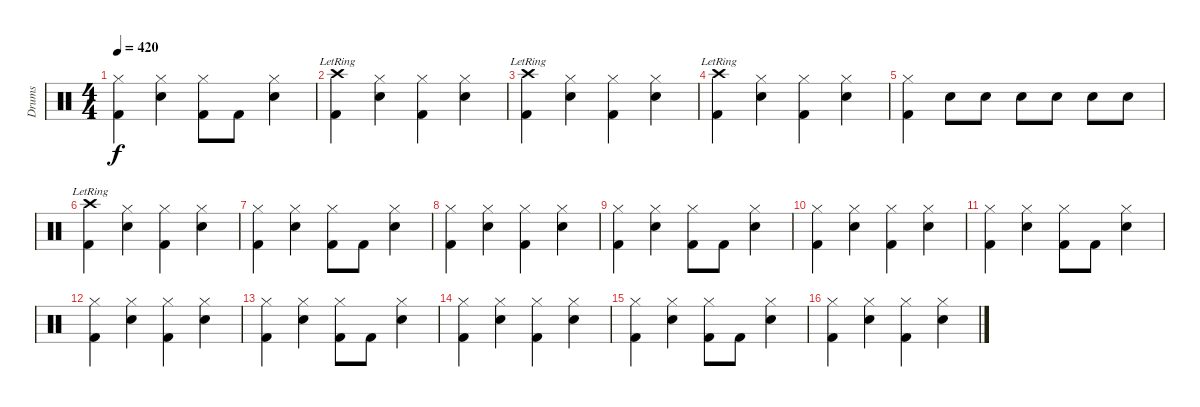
\track ("Drums" "Drums") {instrument percussion}
\staff {score}
\articulation defaults
\ts (4 4)
\tempo 420
\clef neutral
\ks c
("Hi-Hat (closed)" "Kick (hit) 2").4{dy f} ("Hi-Hat (closed)" "Snare (hit) 2").4 ("Hi-Hat (closed)" "Kick (hit) 2").8 "Kick (hit) 2".8 ("Hi-Hat (closed)" "Snare (hit) 2").4 |
("Crash high (hit)"{lr} "Kick (hit) 2").4 ("Hi-Hat (closed)" "Snare (hit) 2").4 ("Hi-Hat (closed)" "Kick (hit) 2").4 ("Hi-Hat (closed)" "Snare (hit) 2").4 |
("Crash high (hit)"{lr} "Kick (hit) 2").4 ("Hi-Hat (closed)" "Snare (hit) 2").4 ("Hi-Hat (closed)" "Kick (hit) 2").4 ("Hi-Hat (closed)" "Snare (hit) 2").4 |
("Crash high (hit)"{lr} "Kick (hit) 2").4 ("Hi-Hat (closed)" "Snare (hit) 2").4 ("Hi-Hat (closed)" "Kick (hit) 2").4 ("Hi-Hat (closed)" "Snare (hit) 2").4 |
("Hi-Hat (closed)" "Kick (hit) 2").4 "Snare (hit) 2".8 "Snare (hit) 2".8 "Snare (hit) 2".8 "Snare (hit) 2".8 "Snare (hit) 2".8 "Snare (hit) 2".8 |
("Crash high (hit)"{lr} "Kick (hit) 2").4 ("Hi-Hat (closed)" "Snare (hit) 2").4 ("Hi-Hat (closed)" "Kick (hit) 2").4 ("Hi-Hat (closed)" "Snare (hit) 2").4 |
("Hi-Hat (closed)" "Kick (hit) 2").4 ("Hi-Hat (closed)" "Snare (hit) 2").4 ("Hi-Hat (closed)" "Kick (hit) 2").8 "Kick (hit) 2".8 ("Hi-Hat (closed)" "Snare (hit) 2").4 |
("Hi-Hat (closed)" "Kick (hit) 2").4 ("Hi-Hat (closed)" "Snare (hit) 2").4 ("Hi-Hat (closed)" "Kick (hit) 2").4 ("Hi-Hat (closed)" "Snare (hit) 2").4 |
("Hi-Hat (closed)" "Kick (hit) 2").4 ("Hi-Hat (closed)" "Snare (hit) 2").4 ("Hi-Hat (closed)" "Kick (hit) 2").8 "Kick (hit) 2".8 ("Hi-Hat (closed)" "Snare (hit) 2").4 |
("Hi-Hat (closed)" "Kick (hit) 2").4 ("Hi-Hat (closed)" "Snare (hit) 2").4 ("Hi-Hat (closed)" "Kick (hit) 2").4 ("Hi-Hat (closed)" "Snare (hit) 2").4 |
("Hi-Hat (closed)" "Kick (hit) 2").4 ("Hi-Hat (closed)" "Snare (hit) 2").4 ("Hi-Hat (closed)" "Kick (hit) 2").8 "Kick (hit) 2".8 ("Hi-Hat (closed)" "Snare (hit) 2").4 |
("Hi-Hat (closed)" "Kick (hit) 2").4 ("Hi-Hat (closed)" "Snare (hit) 2").4 ("Hi-Hat (closed)" "Kick (hit) 2").4 ("Hi-Hat (closed)" "Snare (hit) 2").4 |
("Hi-Hat (closed)" "Kick (hit) 2").4 ("Hi-Hat (closed)" "Snare (hit) 2").4 ("Hi-Hat (closed)" "Kick (hit) 2").8 "Kick (hit) 2".8 ("Hi-Hat (closed)" "Snare (hit) 2").4 |
("Hi-Hat (closed)" "Kick (hit) 2").4 ("Hi-Hat (closed)" "Snare (hit) 2").4 ("Hi-Hat (closed)" "Kick (hit) 2").4 ("Hi-Hat (closed)" "Snare (hit) 2").4 |
("Hi-Hat (closed)" "Kick (hit) 2").4 ("Hi-Hat (closed)" "Snare (hit) 2").4 ("Hi-Hat (closed)" "Kick (hit) 2").8 "Kick (hit) 2".8 ("Hi-Hat (closed)" "Snare (hit) 2").4 |
("Hi-Hat (closed)" "Kick (hit) 2").4 ("Hi-Hat (closed)" "Snare (hit) 2").4 ("Hi-Hat (closed)" "Kick (hit) 2").4 ("Hi-Hat (closed)" "Snare (hit) 2").4
